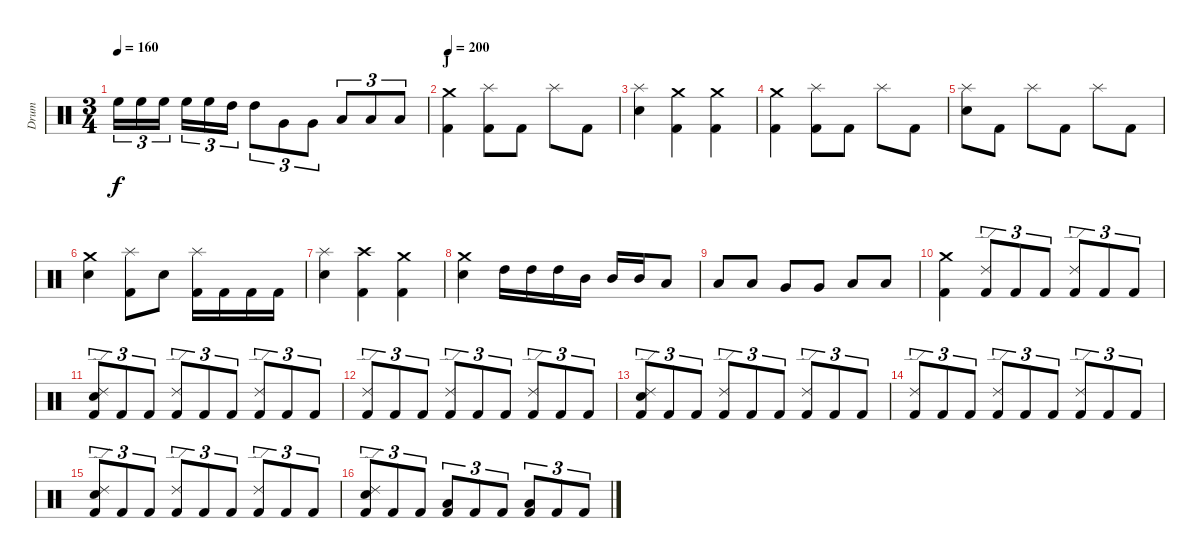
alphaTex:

\track ("Drum" "Drum") {instrument percussion}
\staff {score}
\articulation defaults
\ts (3 4)
\tempo 160
\clef neutral
\ks c "High Floor Tom (hit)".16{tu (3 2) dy f} "High Floor Tom (hit)".16{tu (3 2)} "High Floor Tom (hit)".16{tu (3 2)} "High Floor Tom (hit)".16{tu (3 2)} "High Floor Tom (hit)".16{tu (3 2)} "High Tom (hit)".16{tu (3 2)} "High Tom (hit)".8{tu (3 2)} "Very Low Tom (hit)".8{tu (3 2)} "Very Low Tom (hit)".8{tu (3 2)} "Low Floor Tom (hit)".8{tu (3 2)} "Low Floor Tom (hit)".8{tu (3 2)} "Low Floor Tom (hit)".8{tu (3 2)}
|
\section ("" "J")
\tempo 200
("Crash medium (hit)" "Kick (hit) 2").4 ("Splash (hit)" "Kick (hit) 2").8 "Kick (hit) 2".8 "Splash (hit)".8 "Kick (hit) 2".8 |
("Splash (hit)" "Electric Snare (hit)").4 ("Crash medium (hit)" "Kick (hit) 2").4 ("Crash medium (hit)" "Kick (hit) 2").4 |
("Crash medium (hit)" "Kick (hit) 2").4 ("Splash (hit)" "Kick (hit) 2").8 "Kick (hit) 2".8 "Splash (hit)".8 "Kick (hit) 2".8 |
("Splash (hit)" "Electric Snare (hit)").8 "Kick (hit) 2".8 "Splash (hit)".8 "Kick (hit) 2".8 "Splash (hit)".8 "Kick (hit) 2".8 |
("Crash medium (hit)" "Electric Snare (hit)").4 ("Splash (hit)" "Kick (hit) 2").8 "Electric Snare (hit)".8 ("Splash (hit)" "Kick (hit) 2").16 "Kick (hit) 2".16 "Kick (hit) 2".16 "Kick (hit) 2".16 |
("Splash (hit)" "Electric Snare (hit)").4 ("Crash high (hit)" "Kick (hit) 2").4 ("Crash medium (hit)" "Kick (hit) 2").4 |
("Crash medium (hit)" "Electric Snare (hit)").4 "High Tom (hit)".16 "High Tom (hit)".16 "High Tom (hit)".16 "Mid Tom (hit)".16 "Mid Tom (hit)".16 "Mid Tom (hit)".16 "Low Tom (hit)".8 |
"Low Tom (hit)".8 "Low Tom (hit)".8 "Very Low Tom (hit)".8 "Very Low Tom (hit)".8 "Low Floor Tom (hit)".8 "Low Floor Tom (hit)".8 |
("Crash medium (hit)" "Kick (hit) 2").4 ("Ride (edge) 2" "Kick (hit) 2").8{tu (3 2)} "Kick (hit) 2".8{tu (3 2)} "Kick (hit) 2".8{tu (3 2)} ("Ride (edge) 2" "Kick (hit) 2").8{tu (3 2)} "Kick (hit) 2".8{tu (3 2)} "Kick (hit) 2".8{tu (3 2)} |
("Ride (edge) 2" "Electric Snare (hit)" "Kick (hit) 2").8{tu (3 2)} "Kick (hit) 2".8{tu (3 2)} "Kick (hit) 2".8{tu (3 2)} ("Ride (edge) 2" "Kick (hit) 2").8{tu (3 2)} "Kick (hit) 2".8{tu (3 2)} "Kick (hit) 2".8{tu (3 2)} ("Ride (edge) 2" "Kick (hit) 2").8{tu (3 2)} "Kick (hit) 2".8{tu (3 2)} "Kick (hit) 2".8{tu (3 2)} |
("Ride (edge) 2" "Kick (hit) 2").8{tu (3 2)} "Kick (hit) 2".8{tu (3 2)} "Kick (hit) 2".8{tu (3 2)} ("Ride (edge) 2" "Kick (hit) 2").8{tu (3 2)} "Kick (hit) 2".8{tu (3 2)} "Kick (hit) 2".8{tu (3 2)} ("Ride (edge) 2" "Kick (hit) 2").8{tu (3 2)} "Kick (hit) 2".8{tu (3 2)} "Kick (hit) 2".8{tu (3 2)} |
("Ride (edge) 2" "Electric Snare (hit)" "Kick (hit) 2").8{tu (3 2)} "Kick (hit) 2".8{tu (3 2)} "Kick (hit) 2".8{tu (3 2)} ("Ride (edge) 2" "Kick (hit) 2").8{tu (3 2)} "Kick (hit) 2".8{tu (3 2)} "Kick (hit) 2".8{tu (3 2)} ("Ride (edge) 2" "Kick (hit) 2").8{tu (3 2)} "Kick (hit) 2".8{tu (3 2)} "Kick (hit) 2".8{tu (3 2)} |
("Ride (edge) 2" "Kick (hit) 2").8{tu (3 2)} "Kick (hit) 2".8{tu (3 2)} "Kick (hit) 2".8{tu (3 2)} ("Ride (edge) 2" "Kick (hit) 2").8{tu (3 2)} "Kick (hit) 2".8{tu (3 2)} "Kick (hit) 2".8{tu (3 2)} ("Ride (edge) 2" "Kick (hit) 2").8{tu (3 2)} "Kick (hit) 2".8{tu (3 2)} "Kick (hit) 2".8{tu (3 2)} |
("Ride (edge) 2" "Electric Snare (hit)" "Kick (hit) 2").8{tu (3 2)} "Kick (hit) 2".8{tu (3 2)} "Kick (hit) 2".8{tu (3 2)} ("Ride (edge) 2" "Kick (hit) 2").8{tu (3 2)} "Kick (hit) 2".8{tu (3 2)} "Kick (hit) 2".8{tu (3 2)} ("Ride (edge) 2" "Kick (hit) 2").8{tu (3 2)} "Kick (hit) 2".8{tu (3 2)} "Kick (hit) 2".8{tu (3 2)} |
("Ride (edge) 2" "Electric Snare (hit)" "Kick (hit) 2").8{tu (3 2)} "Kick (hit) 2".8{tu (3 2)} "Kick (hit) 2".8{tu (3 2)} ("Low Tom (hit)" "Kick (hit) 2").8{tu (3 2)} "Kick (hit) 2".8{tu (3 2)} "Kick (hit) 2".8{tu (3 2)} ("Low Tom (hit)" "Kick (hit) 2").8{tu (3 2)} "Kick (hit) 2".8{tu (3 2)} "Kick (hit) 2".8{tu (3 2)}
